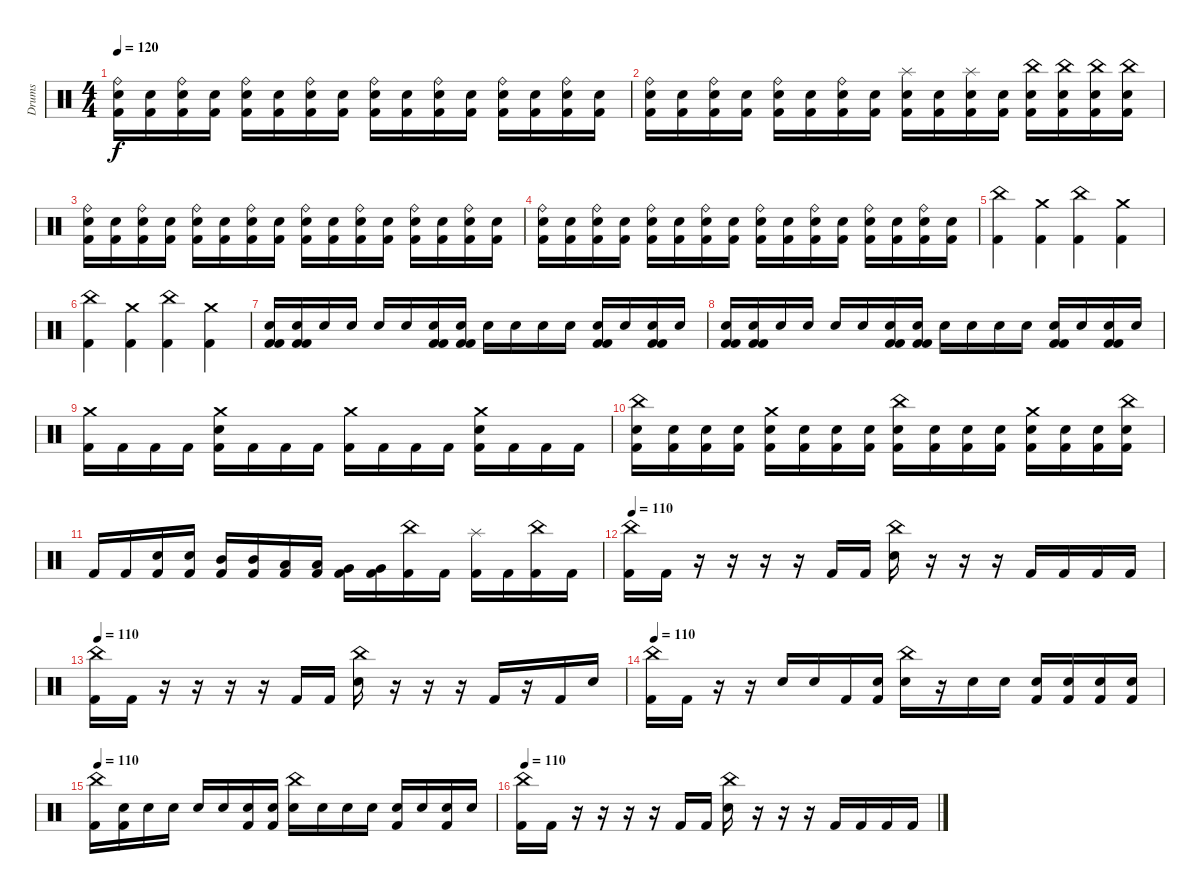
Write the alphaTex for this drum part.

\track ("Drums" "Drums") {instrument percussion}
\staff {score}
\articulation defaults
\ts (4 4)
\tempo 120
\clef neutral
\ks c
("Ride (bell)" "Snare (hit) 2" "Kick (hit) 2").16{dy f} ("Snare (hit) 2" "Kick (hit) 2").16 ("Ride (bell)" "Snare (hit) 2" "Kick (hit) 2").16 ("Snare (hit) 2" "Kick (hit) 2").16 ("Ride (bell)" "Snare (hit) 2" "Kick (hit) 2").16 ("Snare (hit) 2" "Kick (hit) 2").16 ("Ride (bell)" "Snare (hit) 2" "Kick (hit) 2").16 ("Snare (hit) 2" "Kick (hit) 2").16 ("Ride (bell)" "Snare (hit) 2" "Kick (hit) 2").16 ("Snare (hit) 2" "Kick (hit) 2").16 ("Ride (bell)" "Snare (hit) 2" "Kick (hit) 2").16 ("Snare (hit) 2" "Kick (hit) 2").16 ("Ride (bell)" "Snare (hit) 2" "Kick (hit) 2").16 ("Snare (hit) 2" "Kick (hit) 2").16 ("Ride (bell)" "Snare (hit) 2" "Kick (hit) 2").16 ("Snare (hit) 2" "Kick (hit) 2").16 |
("Ride (bell)" "Snare (hit) 2" "Kick (hit) 2").16 ("Snare (hit) 2" "Kick (hit) 2").16 ("Ride (bell)" "Snare (hit) 2" "Kick (hit) 2").16 ("Snare (hit) 2" "Kick (hit) 2").16 ("Ride (bell)" "Snare (hit) 2" "Kick (hit) 2").16 ("Snare (hit) 2" "Kick (hit) 2").16 ("Ride (bell)" "Snare (hit) 2" "Kick (hit) 2").16 ("Snare (hit) 2" "Kick (hit) 2").16 ("Splash (hit)" "Snare (hit) 2" "Kick (hit) 2").16 ("Snare (hit) 2" "Kick (hit) 2").16 ("Splash (hit)" "Snare (hit) 2" "Kick (hit) 2").16 ("Snare (hit) 2" "Kick (hit) 2").16 ("China (hit)" "Snare (hit) 2" "Kick (hit) 2").16 ("China (hit)" "Snare (hit) 2" "Kick (hit) 2").16 ("China (hit)" "Snare (hit) 2" "Kick (hit) 2").16 ("China (hit)" "Snare (hit) 2" "Kick (hit) 2").16 |
("Ride (bell)" "Snare (hit) 2" "Kick (hit) 2").16 ("Snare (hit) 2" "Kick (hit) 2").16 ("Ride (bell)" "Snare (hit) 2" "Kick (hit) 2").16 ("Snare (hit) 2" "Kick (hit) 2").16 ("Ride (bell)" "Snare (hit) 2" "Kick (hit) 2").16 ("Snare (hit) 2" "Kick (hit) 2").16 ("Ride (bell)" "Snare (hit) 2" "Kick (hit) 2").16 ("Snare (hit) 2" "Kick (hit) 2").16 ("Ride (bell)" "Snare (hit) 2" "Kick (hit) 2").16 ("Snare (hit) 2" "Kick (hit) 2").16 ("Ride (bell)" "Snare (hit) 2" "Kick (hit) 2").16 ("Snare (hit) 2" "Kick (hit) 2").16 ("Ride (bell)" "Snare (hit) 2" "Kick (hit) 2").16 ("Snare (hit) 2" "Kick (hit) 2").16 ("Ride (bell)" "Snare (hit) 2" "Kick (hit) 2").16 ("Snare (hit) 2" "Kick (hit) 2").16 |
("Ride (bell)" "Snare (hit) 2" "Kick (hit) 2").16 ("Snare (hit) 2" "Kick (hit) 2").16 ("Ride (bell)" "Snare (hit) 2" "Kick (hit) 2").16 ("Snare (hit) 2" "Kick (hit) 2").16 ("Ride (bell)" "Snare (hit) 2" "Kick (hit) 2").16 ("Snare (hit) 2" "Kick (hit) 2").16 ("Ride (bell)" "Snare (hit) 2" "Kick (hit) 2").16 ("Snare (hit) 2" "Kick (hit) 2").16 ("Ride (bell)" "Snare (hit) 2" "Kick (hit) 2").16 ("Snare (hit) 2" "Kick (hit) 2").16 ("Ride (bell)" "Snare (hit) 2" "Kick (hit) 2").16 ("Snare (hit) 2" "Kick (hit) 2").16 ("Ride (bell)" "Snare (hit) 2" "Kick (hit) 2").16 ("Snare (hit) 2" "Kick (hit) 2").16 ("Ride (bell)" "Snare (hit) 2" "Kick (hit) 2").16 ("Snare (hit) 2" "Kick (hit) 2").16 |
("China (hit)" "Kick (hit) 2").4 ("Crash medium (hit)" "Kick (hit) 2").4 ("China (hit)" "Kick (hit) 2").4 ("Crash medium (hit)" "Kick (hit) 2").4 |
("China (hit)" "Kick (hit) 2").4 ("Crash medium (hit)" "Kick (hit) 2").4 ("China (hit)" "Kick (hit) 2").4 ("Crash medium (hit)" "Kick (hit) 2").4 |
("Snare (hit) 2" "Kick (hit) 2" "Kick (hit) 2").16 ("Snare (hit) 2" "Kick (hit) 2" "Kick (hit) 2").16 "Snare (hit) 2".16 "Snare (hit) 2".16 "Snare (hit) 2".16 "Snare (hit) 2".16 ("Snare (hit) 2" "Kick (hit) 2" "Kick (hit) 2").16 ("Snare (hit) 2" "Kick (hit) 2" "Kick (hit) 2").16 "Snare (hit) 2".16 "Snare (hit) 2".16 "Snare (hit) 2".16 "Snare (hit) 2".16 ("Snare (hit) 2" "Kick (hit) 2" "Kick (hit) 2").16 "Snare (hit) 2".16 ("Snare (hit) 2" "Kick (hit) 2" "Kick (hit) 2").16 "Snare (hit) 2".16 |
("Snare (hit) 2" "Kick (hit) 2" "Kick (hit) 2").16 ("Snare (hit) 2" "Kick (hit) 2" "Kick (hit) 2").16 "Snare (hit) 2".16 "Snare (hit) 2".16 "Snare (hit) 2".16 "Snare (hit) 2".16 ("Snare (hit) 2" "Kick (hit) 2" "Kick (hit) 2").16 ("Snare (hit) 2" "Kick (hit) 2" "Kick (hit) 2").16 "Snare (hit) 2".16 "Snare (hit) 2".16 "Snare (hit) 2".16 "Snare (hit) 2".16 ("Snare (hit) 2" "Kick (hit) 2" "Kick (hit) 2").16 "Snare (hit) 2".16 ("Snare (hit) 2" "Kick (hit) 2" "Kick (hit) 2").16 "Snare (hit) 2".16 |
("Crash medium (hit)" "Kick (hit) 2").16 "Kick (hit) 2".16 "Kick (hit) 2".16 "Kick (hit) 2".16 ("Crash medium (hit)" "Snare (hit) 2" "Kick (hit) 2").16 "Kick (hit) 2".16 "Kick (hit) 2".16 "Kick (hit) 2".16 ("Crash medium (hit)" "Kick (hit) 2").16 "Kick (hit) 2".16 "Kick (hit) 2".16 "Kick (hit) 2".16 ("Crash medium (hit)" "Snare (hit) 2" "Kick (hit) 2").16 "Kick (hit) 2".16 "Kick (hit) 2".16 "Kick (hit) 2".16 |
("China (hit)" "Snare (hit) 2" "Kick (hit) 2").16 ("Snare (hit) 2" "Kick (hit) 2").16 ("Snare (hit) 2" "Kick (hit) 2").16 ("Snare (hit) 2" "Kick (hit) 2").16 ("Crash medium (hit)" "Snare (hit) 2" "Kick (hit) 2").16 ("Snare (hit) 2" "Kick (hit) 2").16 ("Snare (hit) 2" "Kick (hit) 2").16 ("Snare (hit) 2" "Kick (hit) 2").16 ("China (hit)" "Snare (hit) 2" "Kick (hit) 2").16 ("Snare (hit) 2" "Kick (hit) 2").16 ("Snare (hit) 2" "Kick (hit) 2").16 ("Snare (hit) 2" "Kick (hit) 2").16 ("Crash medium (hit)" "Snare (hit) 2" "Kick (hit) 2").16 ("Snare (hit) 2" "Kick (hit) 2").16 ("Snare (hit) 2" "Kick (hit) 2").16 ("China (hit)" "Snare (hit) 2" "Kick (hit) 2").16 |
"Kick (hit) 2".16 "Kick (hit) 2".16 ("Snare (hit) 2" "Kick (hit) 2").16 ("Snare (hit) 2" "Kick (hit) 2").16 ("Mid Tom (hit)" "Kick (hit) 2").16 ("Mid Tom (hit)" "Kick (hit) 2").16 ("Low Tom (hit)" "Kick (hit) 2").16 ("Low Tom (hit)" "Kick (hit) 2").16 ("Very Low Tom (hit)" "Kick (hit) 2").16 ("Very Low Tom (hit)" "Kick (hit) 2").16 ("China (hit)" "Kick (hit) 2").16 "Kick (hit) 2".16 ("Splash (hit)" "Kick (hit) 2").16 "Kick (hit) 2".16 ("China (hit)" "Kick (hit) 2").16 "Kick (hit) 2".16 |
\tempo 110
("China (hit)" "Kick (hit) 2").16 "Kick (hit) 2".16 r.16 r.16 r.16 r.16 "Kick (hit) 2".16 "Kick (hit) 2".16 ("China (hit)" "Snare (hit) 2").16 r.16 r.16 r.16 "Kick (hit) 2".16 "Kick (hit) 2".16 "Kick (hit) 2".16 "Kick (hit) 2".16 |
\tempo 110
("China (hit)" "Kick (hit) 2").16 "Kick (hit) 2".16 r.16 r.16 r.16 r.16 "Kick (hit) 2".16 "Kick (hit) 2".16 ("China (hit)" "Snare (hit) 2").16 r.16 r.16 r.16 "Kick (hit) 2".16 r.16 "Kick (hit) 2".16 "Snare (hit)".16 |
\tempo 110
("China (hit)" "Kick (hit) 2").16 "Kick (hit) 2".16 r.16 r.16 "Snare (hit)".16 "Snare (hit)".16 "Kick (hit) 2".16 ("Snare (hit)" "Kick (hit) 2").16 ("China (hit)" "Snare (hit) 2").16 r.16 "Snare (hit)".16 "Snare (hit)".16 ("Snare (hit)" "Kick (hit) 2").16 ("Snare (hit)" "Kick (hit) 2").16 ("Snare (hit)" "Kick (hit) 2").16 ("Snare (hit)" "Kick (hit) 2").16 |
\tempo 110
("China (hit)" "Kick (hit) 2").16 ("Snare (hit)" "Kick (hit) 2").16 "Snare (hit)".16 "Snare (hit)".16 "Snare (hit)".16 "Snare (hit)".16 ("Snare (hit)" "Kick (hit) 2").16 ("Snare (hit)" "Kick (hit) 2").16 ("China (hit)" "Snare (hit) 2").16 "Snare (hit)".16 "Snare (hit)".16 "Snare (hit)".16 ("Snare (hit)" "Kick (hit) 2").16 "Snare (hit)".16 ("Snare (hit)" "Kick (hit) 2").16 "Snare (hit)".16 |
\tempo 110
("China (hit)" "Kick (hit) 2").16 "Kick (hit) 2".16 r.16 r.16 r.16 r.16 "Kick (hit) 2".16 "Kick (hit) 2".16 ("China (hit)" "Snare (hit) 2").16 r.16 r.16 r.16 "Kick (hit) 2".16 "Kick (hit) 2".16 "Kick (hit) 2".16 "Kick (hit) 2".16
